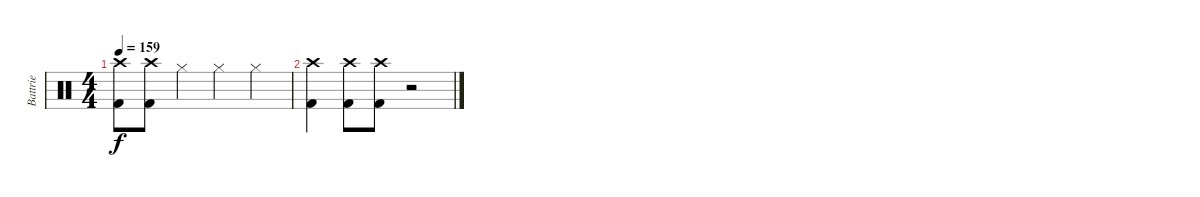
\track ("Battrie" "Battrie") {instrument percussion}
\staff {score}
\articulation defaults
\ts (4 4)
\tempo 159
\clef neutral
\ks c
("Crash high (hit)" "Kick (hit) 2").8{dy f} ("Crash high (hit)" "Kick (hit) 2").8 "Hi-Hat (closed)".4 "Hi-Hat (closed)".4 "Hi-Hat (closed)".4 |
("Crash high (hit)" "Kick (hit) 2").4 ("Crash high (hit)" "Kick (hit) 2").8 ("Crash high (hit)" "Kick (hit) 2").8 r.2
